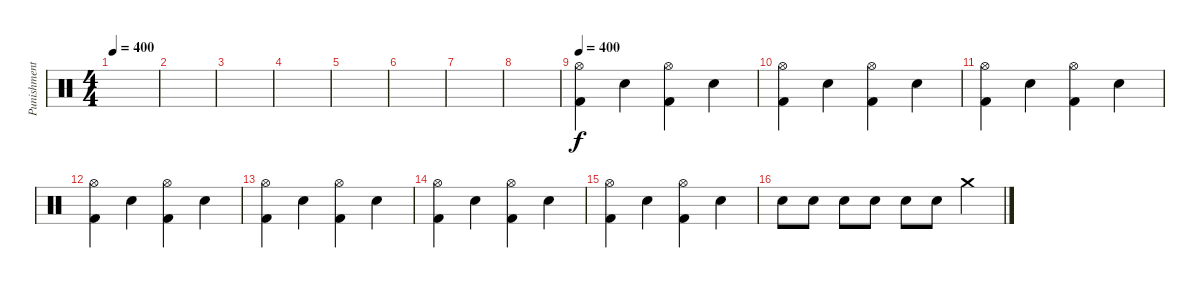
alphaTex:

\track ("Punishment" "Punishment") {instrument percussion}
\staff {score}
\articulation defaults
\ts (4 4)
\tempo 400
\clef neutral
\ks c
|
|
|
|
|
|
|
|
\tempo 400
("Hi-Hat (open)" "Kick (hit) 2").4 "Electric Snare (hit)".4 ("Hi-Hat (open)" "Kick (hit) 2").4 "Electric Snare (hit)".4 |
("Hi-Hat (open)" "Kick (hit) 2").4 "Electric Snare (hit)".4 ("Hi-Hat (open)" "Kick (hit) 2").4 "Electric Snare (hit)".4 |
("Hi-Hat (open)" "Kick (hit) 2").4 "Electric Snare (hit)".4 ("Hi-Hat (open)" "Kick (hit) 2").4 "Electric Snare (hit)".4 |
("Hi-Hat (open)" "Kick (hit) 2").4 "Electric Snare (hit)".4 ("Hi-Hat (open)" "Kick (hit) 2").4 "Electric Snare (hit)".4 |
("Hi-Hat (open)" "Kick (hit) 2").4 "Electric Snare (hit)".4 ("Hi-Hat (open)" "Kick (hit) 2").4 "Electric Snare (hit)".4 |
("Hi-Hat (open)" "Kick (hit) 2").4 "Electric Snare (hit)".4 ("Hi-Hat (open)" "Kick (hit) 2").4 "Electric Snare (hit)".4 |
("Hi-Hat (open)" "Kick (hit) 2").4 "Electric Snare (hit)".4 ("Hi-Hat (open)" "Kick (hit) 2").4 "Electric Snare (hit)".4 |
"Electric Snare (hit)".8 "Electric Snare (hit)".8 "Electric Snare (hit)".8 "Electric Snare (hit)".8 "Electric Snare (hit)".8 "Electric Snare (hit)".8 "Crash medium (hit)".4
